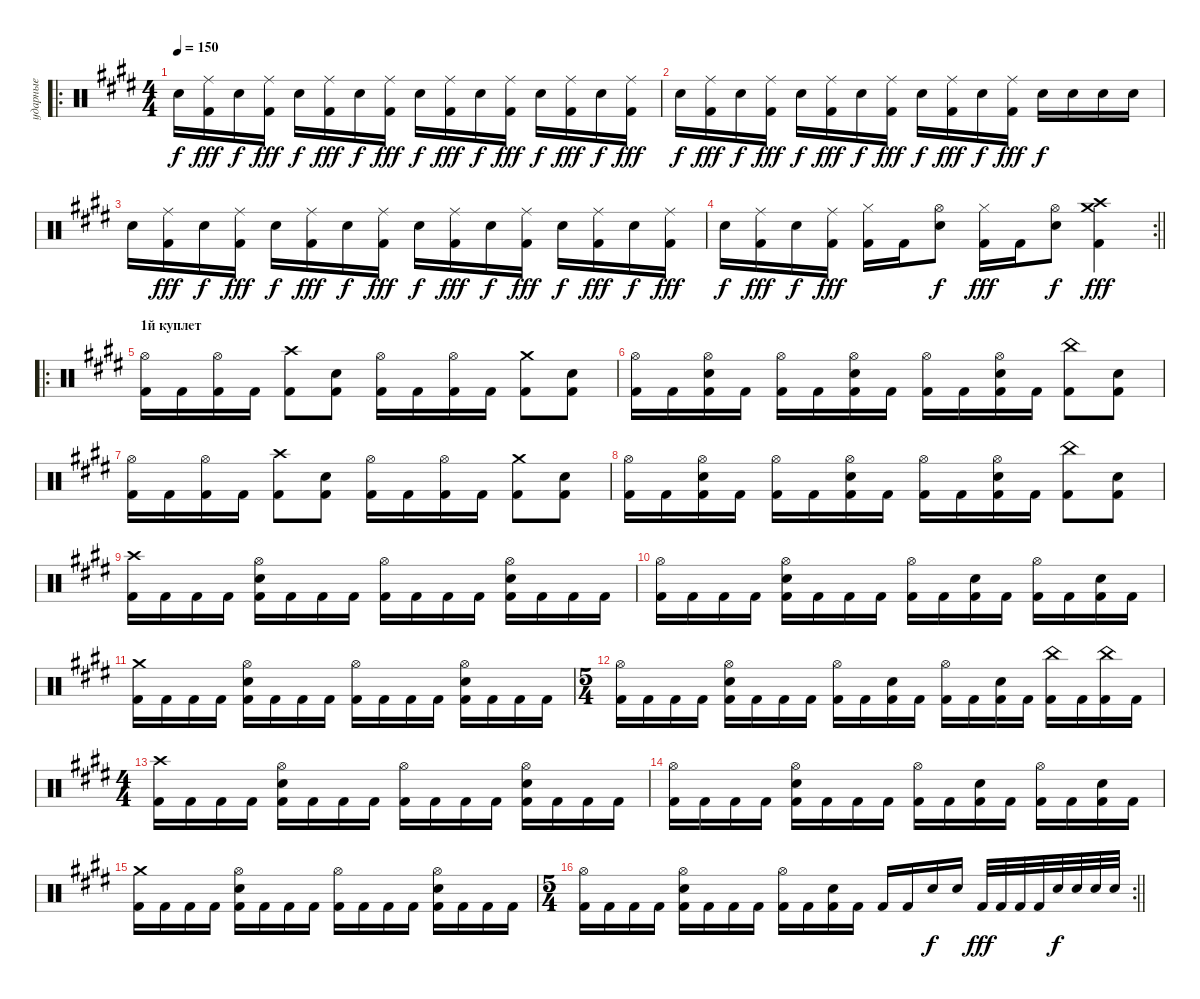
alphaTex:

\track ("ударные" "ударные") {instrument percussion}
\staff {score}
\articulation defaults
\ro
\ts (4 4)
\tempo 150
\clef neutral
\ks c#minor "Electric Snare (hit)".16{dy f}
("Ride (middle)" "Kick (hit) 2").16{dy fff} "Electric Snare (hit)".16{dy f} ("Ride (middle)" "Kick (hit) 2").16{dy fff} "Electric Snare (hit)".16{dy f} ("Ride (middle)" "Kick (hit) 2").16{dy fff} "Electric Snare (hit)".16{dy f} ("Ride (middle)" "Kick (hit) 2").16{dy fff} "Electric Snare (hit)".16{dy f} ("Ride (middle)" "Kick (hit) 2").16{dy fff} "Electric Snare (hit)".16{dy f} ("Ride (middle)" "Kick (hit) 2").16{dy fff} "Electric Snare (hit)".16{dy f} ("Ride (middle)" "Kick (hit) 2").16{dy fff} "Electric Snare (hit)".16{dy f} ("Ride (middle)" "Kick (hit) 2").16{dy fff} |
"Electric Snare (hit)".16{dy f} ("Ride (middle)" "Kick (hit) 2").16{dy fff} "Electric Snare (hit)".16{dy f} ("Ride (middle)" "Kick (hit) 2").16{dy fff} "Electric Snare (hit)".16{dy f} ("Ride (middle)" "Kick (hit) 2").16{dy fff} "Electric Snare (hit)".16{dy f} ("Ride (middle)" "Kick (hit) 2").16{dy fff} "Electric Snare (hit)".16{dy f} ("Ride (middle)" "Kick (hit) 2").16{dy fff} "Electric Snare (hit)".16{dy f} ("Ride (middle)" "Kick (hit) 2").16{dy fff} "Electric Snare (hit)".16{dy f} "Electric Snare (hit)".16 "Electric Snare (hit)".16 "Electric Snare (hit)".16 |
"Electric Snare (hit)".16 ("Ride (middle)" "Kick (hit) 2").16{dy fff} "Electric Snare (hit)".16{dy f} ("Ride (middle)" "Kick (hit) 2").16{dy fff} "Electric Snare (hit)".16{dy f} ("Ride (middle)" "Kick (hit) 2").16{dy fff} "Electric Snare (hit)".16{dy f} ("Ride (middle)" "Kick (hit) 2").16{dy fff} "Electric Snare (hit)".16{dy f} ("Ride (middle)" "Kick (hit) 2").16{dy fff} "Electric Snare (hit)".16{dy f} ("Ride (middle)" "Kick (hit) 2").16{dy fff} "Electric Snare (hit)".16{dy f} ("Ride (middle)" "Kick (hit) 2").16{dy fff} "Electric Snare (hit)".16{dy f} ("Ride (middle)" "Kick (hit) 2").16{dy fff} |
\rc 2
\barLineRight lightlight "Electric Snare (hit)".16{dy f}
("Ride (middle)" "Kick (hit) 2").16{dy fff} "Electric Snare (hit)".16{dy f} ("Ride (middle)" "Kick (hit) 2").16{dy fff} ("Hi-Hat (closed)" "Kick (hit) 2").16 "Kick (hit) 2".16 ("Hi-Hat (open)" "Electric Snare (hit)").8{dy f} ("Hi-Hat (closed)" "Kick (hit) 2").16{dy fff} "Kick (hit) 2".16 ("Hi-Hat (open)" "Electric Snare (hit)").8{dy f} ("Crash medium (hit)" "Crash high (hit)" "Kick (hit) 2").4{dy fff} |
\ro
\section ("" "1й куплет")
("Hi-Hat (open)" "Kick (hit) 2").16 "Kick (hit) 2".16 ("Hi-Hat (open)" "Kick (hit) 2").16 "Kick (hit) 2".16 ("Crash high (hit)" "Kick (hit) 2").8 ("Electric Snare (hit)" "Kick (hit) 2").8 ("Hi-Hat (open)" "Kick (hit) 2").16 "Kick (hit) 2".16 ("Hi-Hat (open)" "Kick (hit) 2").16 "Kick (hit) 2".16 ("Crash medium (hit)" "Kick (hit) 2").8 ("Electric Snare (hit)" "Kick (hit) 2").8 |
("Hi-Hat (open)" "Kick (hit) 2").16 "Kick (hit) 2".16 ("Hi-Hat (open)" "Electric Snare (hit)" "Kick (hit) 2").16 "Kick (hit) 2".16 ("Hi-Hat (open)" "Kick (hit) 2").16 "Kick (hit) 2".16 ("Hi-Hat (open)" "Electric Snare (hit)" "Kick (hit) 2").16 "Kick (hit) 2".16 ("Hi-Hat (open)" "Kick (hit) 2").16 "Kick (hit) 2".16 ("Hi-Hat (open)" "Electric Snare (hit)" "Kick (hit) 2").16 "Kick (hit) 2".16 ("China (hit)" "Kick (hit) 2").8 ("Electric Snare (hit)" "Kick (hit) 2").8 |
("Hi-Hat (open)" "Kick (hit) 2").16 "Kick (hit) 2".16 ("Hi-Hat (open)" "Kick (hit) 2").16 "Kick (hit) 2".16 ("Crash high (hit)" "Kick (hit) 2").8 ("Electric Snare (hit)" "Kick (hit) 2").8 ("Hi-Hat (open)" "Kick (hit) 2").16 "Kick (hit) 2".16 ("Hi-Hat (open)" "Kick (hit) 2").16 "Kick (hit) 2".16 ("Crash medium (hit)" "Kick (hit) 2").8 ("Electric Snare (hit)" "Kick (hit) 2").8 |
("Hi-Hat (open)" "Kick (hit) 2").16 "Kick (hit) 2".16 ("Hi-Hat (open)" "Electric Snare (hit)" "Kick (hit) 2").16 "Kick (hit) 2".16 ("Hi-Hat (open)" "Kick (hit) 2").16 "Kick (hit) 2".16 ("Hi-Hat (open)" "Electric Snare (hit)" "Kick (hit) 2").16 "Kick (hit) 2".16 ("Hi-Hat (open)" "Kick (hit) 2").16 "Kick (hit) 2".16 ("Hi-Hat (open)" "Electric Snare (hit)" "Kick (hit) 2").16 "Kick (hit) 2".16 ("China (hit)" "Kick (hit) 2").8 ("Electric Snare (hit)" "Kick (hit) 2").8 |
("Crash high (hit)" "Kick (hit) 2").16 "Kick (hit) 2".16 "Kick (hit) 2".16 "Kick (hit) 2".16 ("Hi-Hat (open)" "Electric Snare (hit)" "Kick (hit) 2").16 "Kick (hit) 2".16 "Kick (hit) 2".16 "Kick (hit) 2".16 ("Hi-Hat (open)" "Kick (hit) 2").16 "Kick (hit) 2".16 "Kick (hit) 2".16 "Kick (hit) 2".16 ("Hi-Hat (open)" "Electric Snare (hit)" "Kick (hit) 2").16 "Kick (hit) 2".16 "Kick (hit) 2".16 "Kick (hit) 2".16 |
("Hi-Hat (open)" "Kick (hit) 2").16 "Kick (hit) 2".16 "Kick (hit) 2".16 "Kick (hit) 2".16 ("Hi-Hat (open)" "Electric Snare (hit)" "Kick (hit) 2").16 "Kick (hit) 2".16 "Kick (hit) 2".16 "Kick (hit) 2".16 ("Hi-Hat (open)" "Kick (hit) 2").16 "Kick (hit) 2".16 ("Electric Snare (hit)" "Kick (hit) 2").16 "Kick (hit) 2".16 ("Hi-Hat (open)" "Kick (hit) 2").16 "Kick (hit) 2".16 ("Electric Snare (hit)" "Kick (hit) 2").16 "Kick (hit) 2".16 |
("Crash medium (hit)" "Kick (hit) 2").16 "Kick (hit) 2".16 "Kick (hit) 2".16 "Kick (hit) 2".16 ("Hi-Hat (open)" "Electric Snare (hit)" "Kick (hit) 2").16 "Kick (hit) 2".16 "Kick (hit) 2".16 "Kick (hit) 2".16 ("Hi-Hat (open)" "Kick (hit) 2").16 "Kick (hit) 2".16 "Kick (hit) 2".16 "Kick (hit) 2".16 ("Hi-Hat (open)" "Electric Snare (hit)" "Kick (hit) 2").16 "Kick (hit) 2".16 "Kick (hit) 2".16 "Kick (hit) 2".16 |
\ts (5 4)
("Hi-Hat (open)" "Kick (hit) 2").16 "Kick (hit) 2".16 "Kick (hit) 2".16 "Kick (hit) 2".16 ("Hi-Hat (open)" "Electric Snare (hit)" "Kick (hit) 2").16 "Kick (hit) 2".16 "Kick (hit) 2".16 "Kick (hit) 2".16 ("Hi-Hat (open)" "Kick (hit) 2").16 "Kick (hit) 2".16 ("Electric Snare (hit)" "Kick (hit) 2").16 "Kick (hit) 2".16 ("Hi-Hat (open)" "Kick (hit) 2").16 "Kick (hit) 2".16 ("Electric Snare (hit)" "Kick (hit) 2").16 "Kick (hit) 2".16 ("China (hit)" "Kick (hit) 2").16 "Kick (hit) 2".16 ("China (hit)" "Kick (hit) 2").16 "Kick (hit) 2".16 |
\ts (4 4)
("Crash high (hit)" "Kick (hit) 2").16 "Kick (hit) 2".16 "Kick (hit) 2".16 "Kick (hit) 2".16 ("Hi-Hat (open)" "Electric Snare (hit)" "Kick (hit) 2").16 "Kick (hit) 2".16 "Kick (hit) 2".16 "Kick (hit) 2".16 ("Hi-Hat (open)" "Kick (hit) 2").16 "Kick (hit) 2".16 "Kick (hit) 2".16 "Kick (hit) 2".16 ("Hi-Hat (open)" "Electric Snare (hit)" "Kick (hit) 2").16 "Kick (hit) 2".16 "Kick (hit) 2".16 "Kick (hit) 2".16 |
("Hi-Hat (open)" "Kick (hit) 2").16 "Kick (hit) 2".16 "Kick (hit) 2".16 "Kick (hit) 2".16 ("Hi-Hat (open)" "Electric Snare (hit)" "Kick (hit) 2").16 "Kick (hit) 2".16 "Kick (hit) 2".16 "Kick (hit) 2".16 ("Hi-Hat (open)" "Kick (hit) 2").16 "Kick (hit) 2".16 ("Electric Snare (hit)" "Kick (hit) 2").16 "Kick (hit) 2".16 ("Hi-Hat (open)" "Kick (hit) 2").16 "Kick (hit) 2".16 ("Electric Snare (hit)" "Kick (hit) 2").16 "Kick (hit) 2".16 |
("Crash medium (hit)" "Kick (hit) 2").16 "Kick (hit) 2".16 "Kick (hit) 2".16 "Kick (hit) 2".16 ("Hi-Hat (open)" "Electric Snare (hit)" "Kick (hit) 2").16 "Kick (hit) 2".16 "Kick (hit) 2".16 "Kick (hit) 2".16 ("Hi-Hat (open)" "Kick (hit) 2").16 "Kick (hit) 2".16 "Kick (hit) 2".16 "Kick (hit) 2".16 ("Hi-Hat (open)" "Electric Snare (hit)" "Kick (hit) 2").16 "Kick (hit) 2".16 "Kick (hit) 2".16 "Kick (hit) 2".16 |
\rc 2
\ts (5 4)
\barLineRight lightlight
("Hi-Hat (open)" "Kick (hit) 2").16 "Kick (hit) 2".16 "Kick (hit) 2".16 "Kick (hit) 2".16 ("Hi-Hat (open)" "Electric Snare (hit)" "Kick (hit) 2").16 "Kick (hit) 2".16 "Kick (hit) 2".16 "Kick (hit) 2".16 ("Hi-Hat (open)" "Kick (hit) 2").16 "Kick (hit) 2".16 ("Electric Snare (hit)" "Kick (hit) 2").16 "Kick (hit) 2".16 "Kick (hit) 2".16 "Kick (hit) 2".16 "Electric Snare (hit)".16{dy f} "Electric Snare (hit)".16 "Kick (hit) 2".32{dy fff} "Kick (hit) 2".32 "Kick (hit) 2".32 "Kick (hit) 2".32 "Electric Snare (hit)".32{dy f} "Electric Snare (hit)".32 "Electric Snare (hit)".32 "Electric Snare (hit)".32
